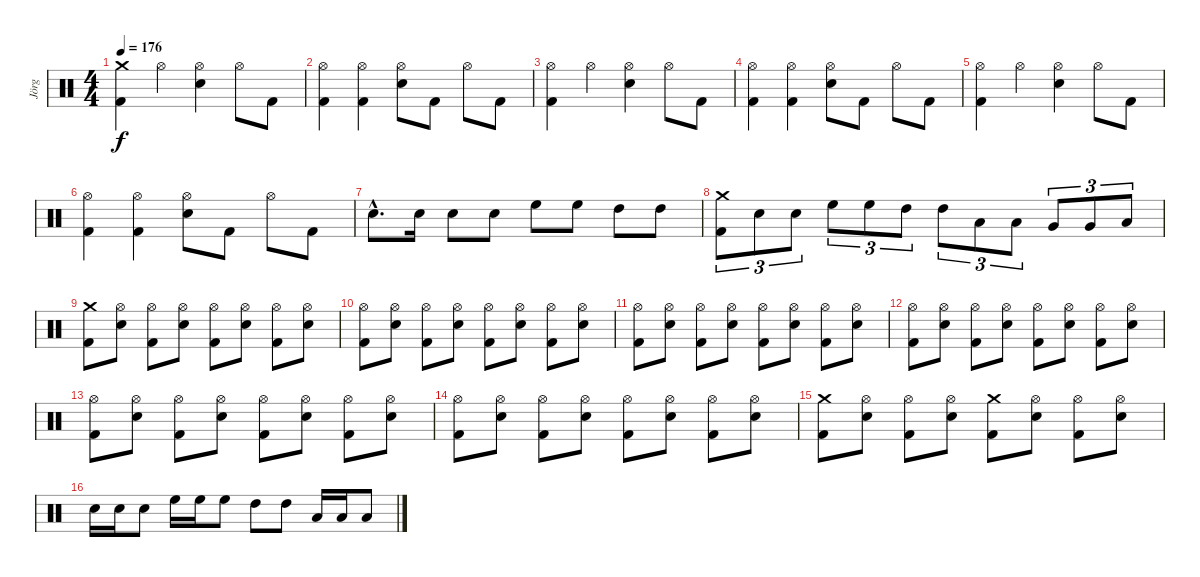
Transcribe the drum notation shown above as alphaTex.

\track ("Jörg" "Jörg") {instrument percussion}
\staff {score}
\articulation defaults
\ts (4 4)
\tempo 176
\clef neutral
\ks c
("Kick (hit) 2" "Crash medium (hit)").4{dy f} "Hi-Hat (open)".4 ("Snare (hit) 2" "Hi-Hat (open)").4 "Hi-Hat (open)".8 "Kick (hit) 2".8 |
("Hi-Hat (open)" "Kick (hit) 2").4 ("Hi-Hat (open)" "Kick (hit) 2").4 ("Hi-Hat (open)" "Snare (hit) 2").8 "Kick (hit) 2".8 "Hi-Hat (open)".8 "Kick (hit) 2".8 |
("Hi-Hat (open)" "Kick (hit) 2").4 "Hi-Hat (open)".4 ("Snare (hit) 2" "Hi-Hat (open)").4 "Hi-Hat (open)".8 "Kick (hit) 2".8 |
("Hi-Hat (open)" "Kick (hit) 2").4 ("Hi-Hat (open)" "Kick (hit) 2").4 ("Hi-Hat (open)" "Snare (hit) 2").8 "Kick (hit) 2".8 "Hi-Hat (open)".8 "Kick (hit) 2".8 |
("Hi-Hat (open)" "Kick (hit) 2").4 "Hi-Hat (open)".4 ("Snare (hit) 2" "Hi-Hat (open)").4 "Hi-Hat (open)".8 "Kick (hit) 2".8 |
("Hi-Hat (open)" "Kick (hit) 2").4 ("Hi-Hat (open)" "Kick (hit) 2").4 ("Hi-Hat (open)" "Snare (hit) 2").8 "Kick (hit) 2".8 "Hi-Hat (open)".8 "Kick (hit) 2".8 |
"Snare (hit) 2"{hac}.8{d} "Snare (hit) 2".16 "Snare (hit) 2".8 "Snare (hit) 2".8 "High Floor Tom (hit)".8 "High Floor Tom (hit)".8 "High Tom (hit)".8 "High Tom (hit)".8 |
("Kick (hit) 2" "Crash medium (hit)").8{tu (3 2)} "Snare (hit) 2".8{tu (3 2)} "Snare (hit) 2".8{tu (3 2)} "High Floor Tom (hit)".8{tu (3 2)} "High Floor Tom (hit)".8{tu (3 2)} "High Tom (hit)".8{tu (3 2)} "High Tom (hit)".8{tu (3 2)} "Low Tom (hit)".8{tu (3 2)} "Low Tom (hit)".8{tu (3 2)} "Very Low Tom (hit)".8{tu (3 2)} "Very Low Tom (hit)".8{tu (3 2)} "Low Floor Tom (hit)".8{tu (3 2)} |
("Crash medium (hit)" "Kick (hit) 2").8 ("Snare (hit) 2" "Hi-Hat (open)").8 ("Kick (hit) 2" "Hi-Hat (open)").8 ("Snare (hit) 2" "Hi-Hat (open)").8 ("Kick (hit) 2" "Hi-Hat (open)").8 ("Snare (hit) 2" "Hi-Hat (open)").8 ("Kick (hit) 2" "Hi-Hat (open)").8 ("Snare (hit) 2" "Hi-Hat (open)").8 |
("Hi-Hat (open)" "Kick (hit) 2").8 ("Snare (hit) 2" "Hi-Hat (open)").8 ("Kick (hit) 2" "Hi-Hat (open)").8 ("Snare (hit) 2" "Hi-Hat (open)").8 ("Kick (hit) 2" "Hi-Hat (open)").8 ("Snare (hit) 2" "Hi-Hat (open)").8 ("Kick (hit) 2" "Hi-Hat (open)").8 ("Snare (hit) 2" "Hi-Hat (open)").8 |
("Hi-Hat (open)" "Kick (hit) 2").8 ("Snare (hit) 2" "Hi-Hat (open)").8 ("Kick (hit) 2" "Hi-Hat (open)").8 ("Snare (hit) 2" "Hi-Hat (open)").8 ("Kick (hit) 2" "Hi-Hat (open)").8 ("Snare (hit) 2" "Hi-Hat (open)").8 ("Kick (hit) 2" "Hi-Hat (open)").8 ("Snare (hit) 2" "Hi-Hat (open)").8 |
("Hi-Hat (open)" "Kick (hit) 2").8 ("Snare (hit) 2" "Hi-Hat (open)").8 ("Kick (hit) 2" "Hi-Hat (open)").8 ("Snare (hit) 2" "Hi-Hat (open)").8 ("Kick (hit) 2" "Hi-Hat (open)").8 ("Snare (hit) 2" "Hi-Hat (open)").8 ("Kick (hit) 2" "Hi-Hat (open)").8 ("Snare (hit) 2" "Hi-Hat (open)").8 |
("Hi-Hat (open)" "Kick (hit) 2").8 ("Snare (hit) 2" "Hi-Hat (open)").8 ("Kick (hit) 2" "Hi-Hat (open)").8 ("Snare (hit) 2" "Hi-Hat (open)").8 ("Kick (hit) 2" "Hi-Hat (open)").8 ("Snare (hit) 2" "Hi-Hat (open)").8 ("Kick (hit) 2" "Hi-Hat (open)").8 ("Snare (hit) 2" "Hi-Hat (open)").8 |
("Hi-Hat (open)" "Kick (hit) 2").8 ("Snare (hit) 2" "Hi-Hat (open)").8 ("Kick (hit) 2" "Hi-Hat (open)").8 ("Snare (hit) 2" "Hi-Hat (open)").8 ("Kick (hit) 2" "Hi-Hat (open)").8 ("Snare (hit) 2" "Hi-Hat (open)").8 ("Kick (hit) 2" "Hi-Hat (open)").8 ("Snare (hit) 2" "Hi-Hat (open)").8 |
("Crash medium (hit)" "Kick (hit) 2").8 ("Snare (hit) 2" "Hi-Hat (open)").8 ("Kick (hit) 2" "Hi-Hat (open)").8 ("Snare (hit) 2" "Hi-Hat (open)").8 ("Crash medium (hit)" "Kick (hit) 2").8 ("Snare (hit) 2" "Hi-Hat (open)").8 ("Kick (hit) 2" "Hi-Hat (open)").8 ("Snare (hit) 2" "Hi-Hat (open)").8 |
"Snare (hit) 2".16 "Snare (hit) 2".16 "Snare (hit) 2".8 "High Floor Tom (hit)".16 "High Floor Tom (hit)".16 "High Floor Tom (hit)".8 "High Tom (hit)".8 "High Tom (hit)".8 "Low Tom (hit)".16 "Low Tom (hit)".16 "Low Tom (hit)".8
